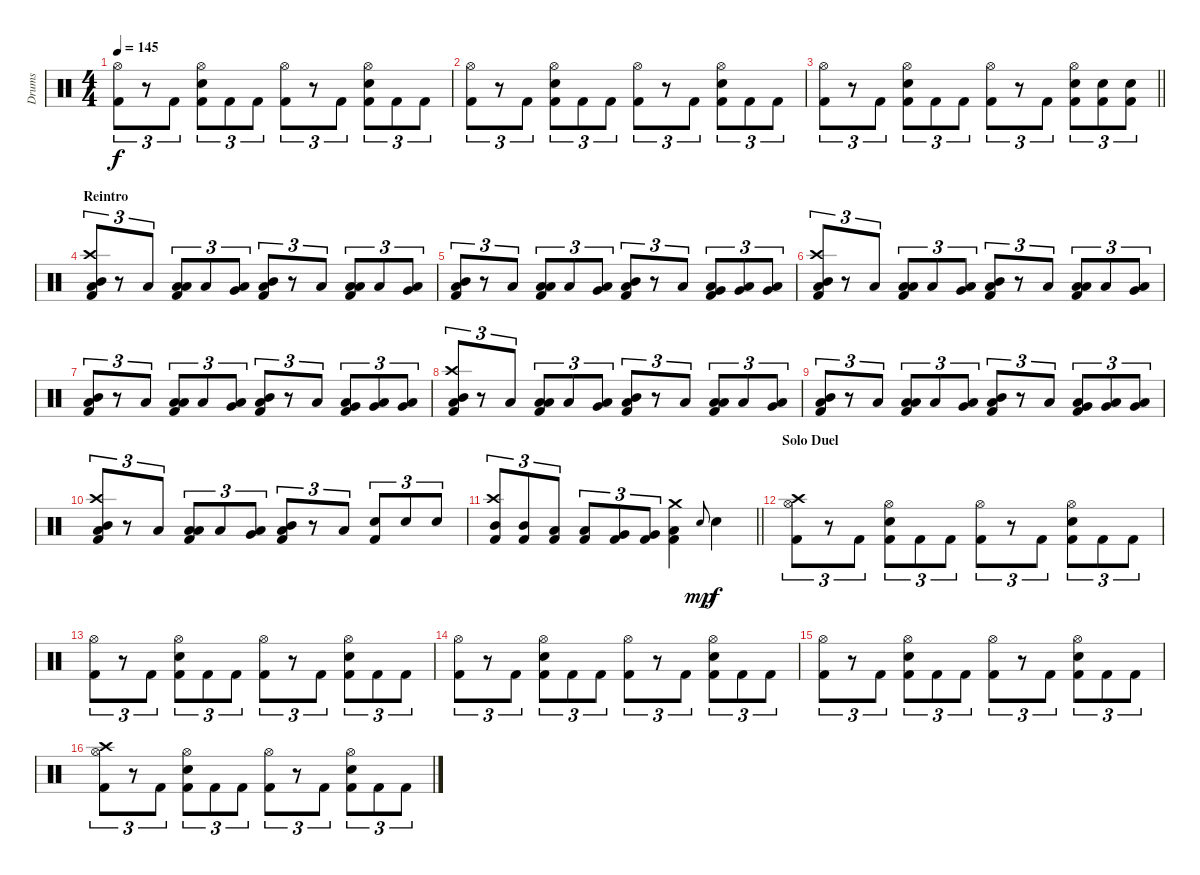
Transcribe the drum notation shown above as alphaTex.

\track ("Drums" "Drums") {instrument percussion}
\staff {score}
\articulation defaults
\ts (4 4)
\tempo 145
\clef neutral
\ks c
("Hi-Hat (open)" "Kick (hit) 2").8{tu (3 2) dy f} r.8{tu (3 2)} "Kick (hit) 2".8{tu (3 2)} ("Hi-Hat (open)" "Snare (hit) 2" "Kick (hit) 2").8{tu (3 2)} "Kick (hit) 2".8{tu (3 2)} "Kick (hit) 2".8{tu (3 2)} ("Hi-Hat (open)" "Kick (hit) 2").8{tu (3 2)} r.8{tu (3 2)} "Kick (hit) 2".8{tu (3 2)} ("Hi-Hat (open)" "Snare (hit) 2" "Kick (hit) 2").8{tu (3 2)} "Kick (hit) 2".8{tu (3 2)} "Kick (hit) 2".8{tu (3 2)} |
("Hi-Hat (open)" "Kick (hit) 2").8{tu (3 2)} r.8{tu (3 2)} "Kick (hit) 2".8{tu (3 2)} ("Hi-Hat (open)" "Snare (hit) 2" "Kick (hit) 2").8{tu (3 2)} "Kick (hit) 2".8{tu (3 2)} "Kick (hit) 2".8{tu (3 2)} ("Hi-Hat (open)" "Kick (hit) 2").8{tu (3 2)} r.8{tu (3 2)} "Kick (hit) 2".8{tu (3 2)} ("Hi-Hat (open)" "Snare (hit) 2" "Kick (hit) 2").8{tu (3 2)} "Kick (hit) 2".8{tu (3 2)} "Kick (hit) 2".8{tu (3 2)} |
\barLineRight lightlight
("Hi-Hat (open)" "Kick (hit) 2").8{tu (3 2)} r.8{tu (3 2)} "Kick (hit) 2".8{tu (3 2)} ("Hi-Hat (open)" "Snare (hit) 2" "Kick (hit) 2").8{tu (3 2)} "Kick (hit) 2".8{tu (3 2)} "Kick (hit) 2".8{tu (3 2)} ("Hi-Hat (open)" "Kick (hit) 2").8{tu (3 2)} r.8{tu (3 2)} "Kick (hit) 2".8{tu (3 2)} ("Hi-Hat (open)" "Snare (hit) 2" "Kick (hit) 2").8{tu (3 2)} ("Snare (hit) 2" "Kick (hit) 2").8{tu (3 2)} ("Snare (hit) 2" "Kick (hit) 2").8{tu (3 2)} |
\section ("" "Reintro")
("Crash high (hit)" "Mid Tom (hit)" "Low Floor Tom (hit)" "Kick (hit) 2").8{tu (3 2)} r.8{tu (3 2)} "Low Floor Tom (hit)".8{tu (3 2)} ("Low Tom (hit)" "Low Floor Tom (hit)" "Kick (hit) 2").8{tu (3 2)} "Low Floor Tom (hit)".8{tu (3 2)} ("Very Low Tom (hit)" "Low Floor Tom (hit)").8{tu (3 2)} ("Mid Tom (hit)" "Low Floor Tom (hit)" "Kick (hit) 2").8{tu (3 2)} r.8{tu (3 2)} "Low Floor Tom (hit)".8{tu (3 2)} ("Low Tom (hit)" "Low Floor Tom (hit)" "Kick (hit) 2").8{tu (3 2)} "Low Floor Tom (hit)".8{tu (3 2)} ("Very Low Tom (hit)" "Low Floor Tom (hit)").8{tu (3 2)} |
("Mid Tom (hit)" "Low Floor Tom (hit)" "Kick (hit) 2").8{tu (3 2)} r.8{tu (3 2)} "Low Floor Tom (hit)".8{tu (3 2)} ("Low Tom (hit)" "Low Floor Tom (hit)" "Kick (hit) 2").8{tu (3 2)} "Low Floor Tom (hit)".8{tu (3 2)} ("Very Low Tom (hit)" "Low Floor Tom (hit)").8{tu (3 2)} ("Mid Tom (hit)" "Low Floor Tom (hit)" "Kick (hit) 2").8{tu (3 2)} r.8{tu (3 2)} "Low Floor Tom (hit)".8{tu (3 2)} ("Very Low Tom (hit)" "Low Floor Tom (hit)" "Kick (hit) 2").8{tu (3 2)} ("Very Low Tom (hit)" "Low Floor Tom (hit)").8{tu (3 2)} ("Very Low Tom (hit)" "Low Floor Tom (hit)").8{tu (3 2)} |
("Crash high (hit)" "Mid Tom (hit)" "Low Floor Tom (hit)" "Kick (hit) 2").8{tu (3 2)} r.8{tu (3 2)} "Low Floor Tom (hit)".8{tu (3 2)} ("Low Tom (hit)" "Low Floor Tom (hit)" "Kick (hit) 2").8{tu (3 2)} "Low Floor Tom (hit)".8{tu (3 2)} ("Very Low Tom (hit)" "Low Floor Tom (hit)").8{tu (3 2)} ("Mid Tom (hit)" "Low Floor Tom (hit)" "Kick (hit) 2").8{tu (3 2)} r.8{tu (3 2)} "Low Floor Tom (hit)".8{tu (3 2)} ("Low Tom (hit)" "Low Floor Tom (hit)" "Kick (hit) 2").8{tu (3 2)} "Low Floor Tom (hit)".8{tu (3 2)} ("Very Low Tom (hit)" "Low Floor Tom (hit)").8{tu (3 2)} |
("Mid Tom (hit)" "Low Floor Tom (hit)" "Kick (hit) 2").8{tu (3 2)} r.8{tu (3 2)} "Low Floor Tom (hit)".8{tu (3 2)} ("Low Tom (hit)" "Low Floor Tom (hit)" "Kick (hit) 2").8{tu (3 2)} "Low Floor Tom (hit)".8{tu (3 2)} ("Very Low Tom (hit)" "Low Floor Tom (hit)").8{tu (3 2)} ("Mid Tom (hit)" "Low Floor Tom (hit)" "Kick (hit) 2").8{tu (3 2)} r.8{tu (3 2)} "Low Floor Tom (hit)".8{tu (3 2)} ("Very Low Tom (hit)" "Low Floor Tom (hit)" "Kick (hit) 2").8{tu (3 2)} ("Very Low Tom (hit)" "Low Floor Tom (hit)").8{tu (3 2)} ("Very Low Tom (hit)" "Low Floor Tom (hit)").8{tu (3 2)} |
("Crash high (hit)" "Mid Tom (hit)" "Low Floor Tom (hit)" "Kick (hit) 2").8{tu (3 2)} r.8{tu (3 2)} "Low Floor Tom (hit)".8{tu (3 2)} ("Low Tom (hit)" "Low Floor Tom (hit)" "Kick (hit) 2").8{tu (3 2)} "Low Floor Tom (hit)".8{tu (3 2)} ("Very Low Tom (hit)" "Low Floor Tom (hit)").8{tu (3 2)} ("Mid Tom (hit)" "Low Floor Tom (hit)" "Kick (hit) 2").8{tu (3 2)} r.8{tu (3 2)} "Low Floor Tom (hit)".8{tu (3 2)} ("Low Tom (hit)" "Low Floor Tom (hit)" "Kick (hit) 2").8{tu (3 2)} "Low Floor Tom (hit)".8{tu (3 2)} ("Very Low Tom (hit)" "Low Floor Tom (hit)").8{tu (3 2)} |
("Mid Tom (hit)" "Low Floor Tom (hit)" "Kick (hit) 2").8{tu (3 2)} r.8{tu (3 2)} "Low Floor Tom (hit)".8{tu (3 2)} ("Low Tom (hit)" "Low Floor Tom (hit)" "Kick (hit) 2").8{tu (3 2)} "Low Floor Tom (hit)".8{tu (3 2)} ("Very Low Tom (hit)" "Low Floor Tom (hit)").8{tu (3 2)} ("Mid Tom (hit)" "Low Floor Tom (hit)" "Kick (hit) 2").8{tu (3 2)} r.8{tu (3 2)} "Low Floor Tom (hit)".8{tu (3 2)} ("Very Low Tom (hit)" "Low Floor Tom (hit)" "Kick (hit) 2").8{tu (3 2)} ("Very Low Tom (hit)" "Low Floor Tom (hit)").8{tu (3 2)} ("Very Low Tom (hit)" "Low Floor Tom (hit)").8{tu (3 2)} |
("Crash high (hit)" "Mid Tom (hit)" "Low Floor Tom (hit)" "Kick (hit) 2").8{tu (3 2)} r.8{tu (3 2)} "Low Floor Tom (hit)".8{tu (3 2)} ("Low Tom (hit)" "Low Floor Tom (hit)" "Kick (hit) 2").8{tu (3 2)} "Low Floor Tom (hit)".8{tu (3 2)} ("Very Low Tom (hit)" "Low Floor Tom (hit)").8{tu (3 2)} ("Mid Tom (hit)" "Low Floor Tom (hit)" "Kick (hit) 2").8{tu (3 2)} r.8{tu (3 2)} "Low Floor Tom (hit)".8{tu (3 2)} ("Snare (hit) 2" "Kick (hit) 2").8{tu (3 2)} "Snare (hit) 2".8{tu (3 2)} "Snare (hit) 2".8{tu (3 2)} |
\barLineRight lightlight
("Crash high (hit)" "Mid Tom (hit)" "Kick (hit) 2").8{tu (3 2)} ("Mid Tom (hit)" "Kick (hit) 2").8{tu (3 2)} ("Low Tom (hit)" "Kick (hit) 2").8{tu (3 2)} ("Low Tom (hit)" "Kick (hit) 2").8{tu (3 2)} ("Very Low Tom (hit)" "Kick (hit) 2").8{tu (3 2)} ("Very Low Tom (hit)" "Kick (hit) 2").8{tu (3 2)} ("Crash medium (hit)" "Low Floor Tom (hit)" "Kick (hit) 2").4 "Snare (hit) 2".8{gr onbeat dy mp} "Snare (hit) 2".4{dy f} |
\section ("" "Solo Duel")
("Crash high (hit)" "Hi-Hat (open)" "Kick (hit) 2").8{tu (3 2)} r.8{tu (3 2)} "Kick (hit) 2".8{tu (3 2)} ("Hi-Hat (open)" "Snare (hit) 2" "Kick (hit) 2").8{tu (3 2)} "Kick (hit) 2".8{tu (3 2)} "Kick (hit) 2".8{tu (3 2)} ("Hi-Hat (open)" "Kick (hit) 2").8{tu (3 2)} r.8{tu (3 2)} "Kick (hit) 2".8{tu (3 2)} ("Hi-Hat (open)" "Snare (hit) 2" "Kick (hit) 2").8{tu (3 2)} "Kick (hit) 2".8{tu (3 2)} "Kick (hit) 2".8{tu (3 2)} |
("Hi-Hat (open)" "Kick (hit) 2").8{tu (3 2)} r.8{tu (3 2)} "Kick (hit) 2".8{tu (3 2)} ("Hi-Hat (open)" "Snare (hit) 2" "Kick (hit) 2").8{tu (3 2)} "Kick (hit) 2".8{tu (3 2)} "Kick (hit) 2".8{tu (3 2)} ("Hi-Hat (open)" "Kick (hit) 2").8{tu (3 2)} r.8{tu (3 2)} "Kick (hit) 2".8{tu (3 2)} ("Hi-Hat (open)" "Snare (hit) 2" "Kick (hit) 2").8{tu (3 2)} "Kick (hit) 2".8{tu (3 2)} "Kick (hit) 2".8{tu (3 2)} |
("Hi-Hat (open)" "Kick (hit) 2").8{tu (3 2)} r.8{tu (3 2)} "Kick (hit) 2".8{tu (3 2)} ("Hi-Hat (open)" "Snare (hit) 2" "Kick (hit) 2").8{tu (3 2)} "Kick (hit) 2".8{tu (3 2)} "Kick (hit) 2".8{tu (3 2)} ("Hi-Hat (open)" "Kick (hit) 2").8{tu (3 2)} r.8{tu (3 2)} "Kick (hit) 2".8{tu (3 2)} ("Hi-Hat (open)" "Snare (hit) 2" "Kick (hit) 2").8{tu (3 2)} "Kick (hit) 2".8{tu (3 2)} "Kick (hit) 2".8{tu (3 2)} |
("Hi-Hat (open)" "Kick (hit) 2").8{tu (3 2)} r.8{tu (3 2)} "Kick (hit) 2".8{tu (3 2)} ("Hi-Hat (open)" "Snare (hit) 2" "Kick (hit) 2").8{tu (3 2)} "Kick (hit) 2".8{tu (3 2)} "Kick (hit) 2".8{tu (3 2)} ("Hi-Hat (open)" "Kick (hit) 2").8{tu (3 2)} r.8{tu (3 2)} "Kick (hit) 2".8{tu (3 2)} ("Hi-Hat (open)" "Snare (hit) 2" "Kick (hit) 2").8{tu (3 2)} "Kick (hit) 2".8{tu (3 2)} "Kick (hit) 2".8{tu (3 2)} |
("Crash high (hit)" "Hi-Hat (open)" "Kick (hit) 2").8{tu (3 2)} r.8{tu (3 2)} "Kick (hit) 2".8{tu (3 2)} ("Hi-Hat (open)" "Snare (hit) 2" "Kick (hit) 2").8{tu (3 2)} "Kick (hit) 2".8{tu (3 2)} "Kick (hit) 2".8{tu (3 2)} ("Hi-Hat (open)" "Kick (hit) 2").8{tu (3 2)} r.8{tu (3 2)} "Kick (hit) 2".8{tu (3 2)} ("Hi-Hat (open)" "Snare (hit) 2" "Kick (hit) 2").8{tu (3 2)} "Kick (hit) 2".8{tu (3 2)} "Kick (hit) 2".8{tu (3 2)}
